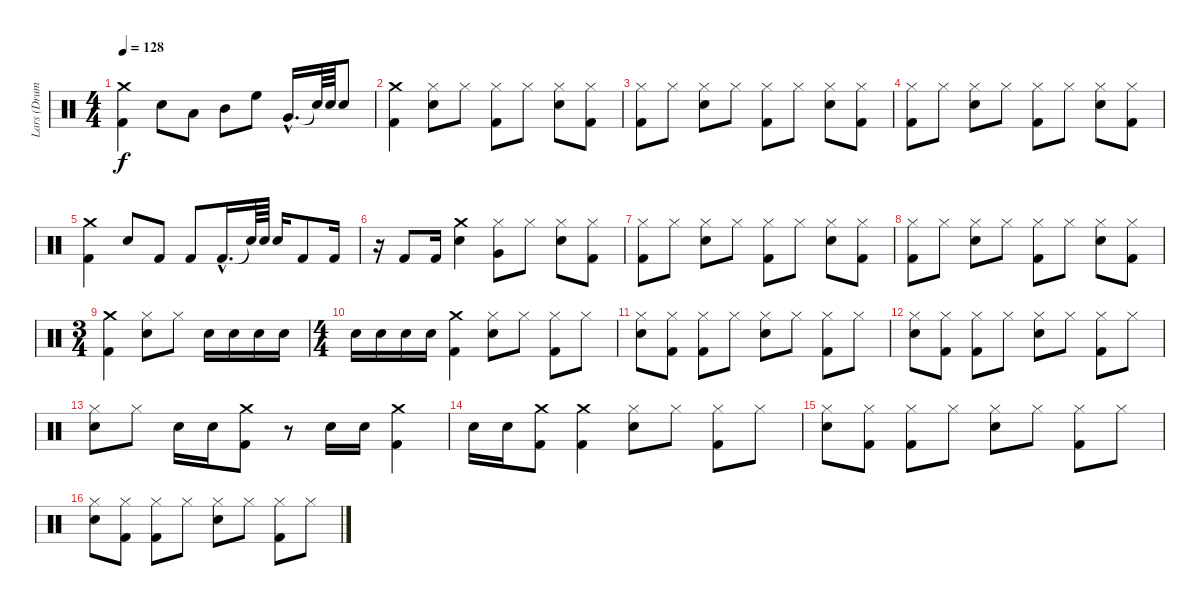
\track ("Lars (Drums)" "Lars (Drum") {instrument percussion}
\staff {score}
\articulation defaults
\ts (4 4)
\tempo 128
\clef neutral
\ks c
("Kick (hit) 2" "Crash medium (hit)").4{dy f} "Snare (hit) 2".8 "Low Tom (hit)".8 "Mid Tom (hit)".8 "High Floor Tom (hit)".8 "Very Low Tom (hit)"{hac}.16{d} "Snare (hit)"{t}.64 "Snare (hit) 2".64 "Snare (hit) 2".8 |
("Kick (hit) 2" "Crash medium (hit)").4 ("Snare (hit) 2" "Hi-Hat (closed)").8 "Hi-Hat (closed)".8 ("Hi-Hat (closed)" "Kick (hit) 2").8 "Hi-Hat (closed)".8 ("Snare (hit) 2" "Hi-Hat (closed)").8 ("Kick (hit) 2" "Hi-Hat (closed)").8 |
("Hi-Hat (closed)" "Kick (hit) 2").8 "Hi-Hat (closed)".8 ("Snare (hit) 2" "Hi-Hat (closed)").8 "Hi-Hat (closed)".8 ("Hi-Hat (closed)" "Kick (hit) 2").8 "Hi-Hat (closed)".8 ("Snare (hit) 2" "Hi-Hat (closed)").8 ("Kick (hit) 2" "Hi-Hat (closed)").8 |
("Hi-Hat (closed)" "Kick (hit) 2").8 "Hi-Hat (closed)".8 ("Snare (hit) 2" "Hi-Hat (closed)").8 "Hi-Hat (closed)".8 ("Hi-Hat (closed)" "Kick (hit) 2").8 "Hi-Hat (closed)".8 ("Snare (hit) 2" "Hi-Hat (closed)").8 ("Kick (hit) 2" "Hi-Hat (closed)").8 |
("Kick (hit) 2" "Crash medium (hit)").4 "Snare (hit) 2".8 "Kick (hit) 2".8 "Kick (hit) 2".8 "Kick (hit) 2"{hac}.16{d} "Snare (hit)"{t}.64 "Snare (hit) 2".64 "Snare (hit) 2".16 "Kick (hit) 2".8 "Kick (hit) 2".16 |
r.16 "Kick (hit) 2".8 "Kick (hit) 2".16 ("Snare (hit) 2" "Crash medium (hit)").4 ("Very Low Tom (hit)" "Hi-Hat (closed)").8 "Hi-Hat (closed)".8 ("Snare (hit) 2" "Hi-Hat (closed)").8 ("Kick (hit) 2" "Hi-Hat (closed)").8 |
("Hi-Hat (closed)" "Kick (hit) 2").8 "Hi-Hat (closed)".8 ("Snare (hit) 2" "Hi-Hat (closed)").8 "Hi-Hat (closed)".8 ("Hi-Hat (closed)" "Kick (hit) 2").8 "Hi-Hat (closed)".8 ("Snare (hit) 2" "Hi-Hat (closed)").8 ("Kick (hit) 2" "Hi-Hat (closed)").8 |
("Hi-Hat (closed)" "Kick (hit) 2").8 "Hi-Hat (closed)".8 ("Snare (hit) 2" "Hi-Hat (closed)").8 "Hi-Hat (closed)".8 ("Hi-Hat (closed)" "Kick (hit) 2").8 "Hi-Hat (closed)".8 ("Snare (hit) 2" "Hi-Hat (closed)").8 ("Kick (hit) 2" "Hi-Hat (closed)").8 |
\ts (3 4)
("Kick (hit) 2" "Crash medium (hit)").4 ("Snare (hit) 2" "Hi-Hat (closed)").8 "Hi-Hat (closed)".8 "Snare (hit) 2".16 "Snare (hit) 2".16 "Snare (hit) 2".16 "Snare (hit) 2".16 |
\ts (4 4)
"Snare (hit) 2".16 "Snare (hit) 2".16 "Snare (hit) 2".16 "Snare (hit) 2".16 ("Kick (hit) 2" "Crash medium (hit)").4 ("Snare (hit) 2" "Hi-Hat (closed)").8 "Hi-Hat (closed)".8 ("Kick (hit) 2" "Hi-Hat (closed)").8 "Hi-Hat (closed)".8 |
("Hi-Hat (closed)" "Snare (hit) 2").8 ("Hi-Hat (closed)" "Kick (hit) 2").8 ("Hi-Hat (closed)" "Kick (hit) 2").8 "Hi-Hat (closed)".8 ("Snare (hit) 2" "Hi-Hat (closed)").8 "Hi-Hat (closed)".8 ("Hi-Hat (closed)" "Kick (hit) 2").8 "Hi-Hat (closed)".8 |
("Hi-Hat (closed)" "Snare (hit) 2").8 ("Hi-Hat (closed)" "Kick (hit) 2").8 ("Hi-Hat (closed)" "Kick (hit) 2").8 "Hi-Hat (closed)".8 ("Snare (hit) 2" "Hi-Hat (closed)").8 "Hi-Hat (closed)".8 ("Hi-Hat (closed)" "Kick (hit) 2").8 "Hi-Hat (closed)".8 |
("Hi-Hat (closed)" "Snare (hit) 2").8 "Hi-Hat (closed)".8 "Snare (hit) 2".16 "Snare (hit) 2".16 ("Kick (hit) 2" "Crash medium (hit)").8 r.8 "Snare (hit) 2".16 "Snare (hit) 2".16 ("Kick (hit) 2" "Crash medium (hit)").4 |
"Snare (hit) 2".16 "Snare (hit) 2".16 ("Kick (hit) 2" "Crash medium (hit)").8 ("Kick (hit) 2" "Crash medium (hit)").4 ("Hi-Hat (closed)" "Snare (hit) 2").8 "Hi-Hat (closed)".8 ("Hi-Hat (closed)" "Kick (hit) 2").8 "Hi-Hat (closed)".8 |
("Hi-Hat (closed)" "Snare (hit) 2").8 ("Hi-Hat (closed)" "Kick (hit) 2").8 ("Hi-Hat (closed)" "Kick (hit) 2").8 "Hi-Hat (closed)".8 ("Snare (hit) 2" "Hi-Hat (closed)").8 "Hi-Hat (closed)".8 ("Hi-Hat (closed)" "Kick (hit) 2").8 "Hi-Hat (closed)".8 |
("Hi-Hat (closed)" "Snare (hit) 2").8 ("Hi-Hat (closed)" "Kick (hit) 2").8 ("Hi-Hat (closed)" "Kick (hit) 2").8 "Hi-Hat (closed)".8 ("Snare (hit) 2" "Hi-Hat (closed)").8 "Hi-Hat (closed)".8 ("Hi-Hat (closed)" "Kick (hit) 2").8 "Hi-Hat (closed)".8
